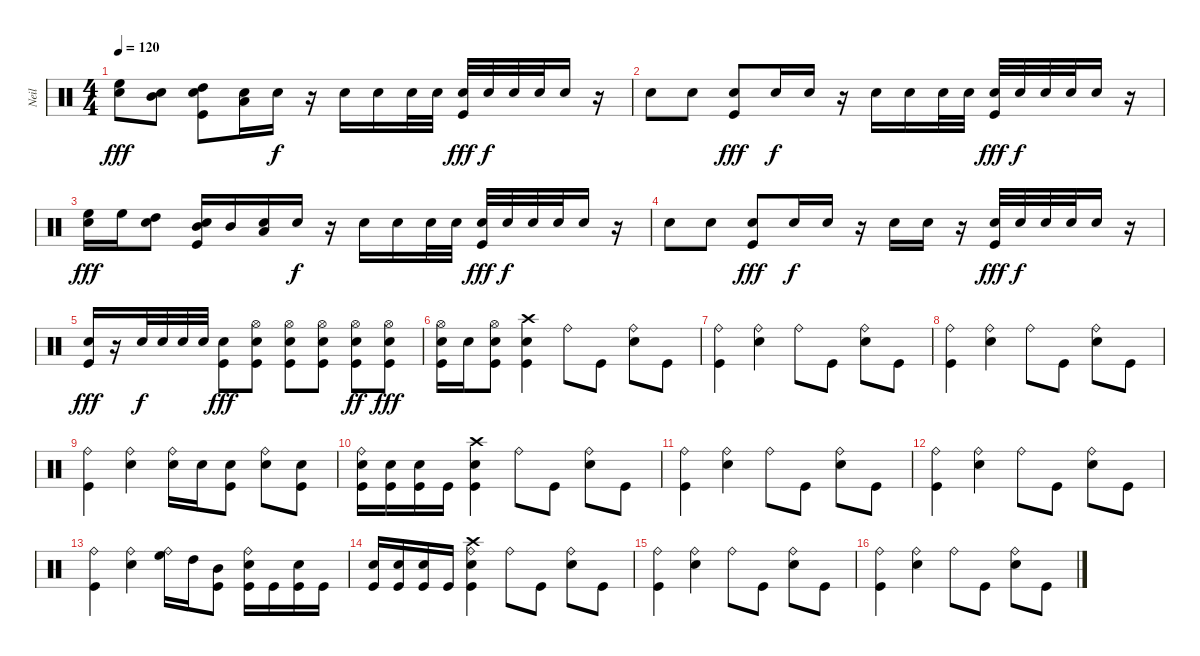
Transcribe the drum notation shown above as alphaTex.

\track ("Neil" "Neil") {instrument percussion}
\staff {score}
\articulation defaults
\ts (4 4)
\tempo 120
\clef neutral
\ks c
("High Floor Tom (hit)" "Snare (hit) 2").8{dy fff} ("Mid Tom (hit)" "Snare (hit) 2").8 ("Snare (hit) 2" "Kick (hit)" "High Tom (hit)").8 ("Snare (hit) 2" "Low Tom (hit)").16 "Snare (hit) 2".16{dy f} r.16 "Snare (hit) 2".16 "Snare (hit) 2".16 "Snare (hit) 2".32 "Snare (hit) 2".32 ("Snare (hit) 2" "Kick (hit)").32{dy fff} "Snare (hit) 2".32{dy f} "Snare (hit) 2".32 "Snare (hit) 2".32 "Snare (hit) 2".16 r.16 |
"Snare (hit) 2".8 "Snare (hit) 2".8 ("Kick (hit)" "Snare (hit) 2").8{dy fff} "Snare (hit) 2".16{dy f} "Snare (hit) 2".16 r.16 "Snare (hit) 2".16 "Snare (hit) 2".16 "Snare (hit) 2".32 "Snare (hit) 2".32 ("Kick (hit)" "Snare (hit) 2").32{dy fff} "Snare (hit) 2".32{dy f} "Snare (hit) 2".32 "Snare (hit) 2".32 "Snare (hit) 2".16 r.16 |
("High Floor Tom (hit)" "Snare (hit) 2").16{dy fff} "High Floor Tom (hit)".16 ("Snare (hit) 2" "High Tom (hit)").8 ("Kick (hit)" "Mid Tom (hit)" "Snare (hit) 2").16 "Mid Tom (hit)".16 ("Snare (hit) 2" "Low Tom (hit)").16 "Snare (hit) 2".16{dy f} r.16 "Snare (hit) 2".16 "Snare (hit) 2".16 "Snare (hit) 2".32 "Snare (hit) 2".32 ("Snare (hit) 2" "Kick (hit)").32{dy fff} "Snare (hit) 2".32{dy f} "Snare (hit) 2".32 "Snare (hit) 2".32 "Snare (hit) 2".16 r.16 |
"Snare (hit) 2".8 "Snare (hit) 2".8 ("Kick (hit)" "Snare (hit) 2").8{dy fff} "Snare (hit) 2".16{dy f} "Snare (hit) 2".16 r.16 "Snare (hit) 2".16 "Snare (hit) 2".16 r.16 ("Snare (hit) 2" "Kick (hit)").32{dy fff} "Snare (hit) 2".32{dy f} "Snare (hit) 2".32 "Snare (hit) 2".32 "Snare (hit) 2".16 r.16 |
("Kick (hit)" "Snare (hit) 2").16{dy fff} r.16 "Snare (hit) 2".32{dy f} "Snare (hit) 2".32 "Snare (hit) 2".32 "Snare (hit) 2".32 ("Kick (hit)" "Snare (hit) 2").8{dy fff} ("Snare (hit) 2" "Hi-Hat (open)" "Kick (hit)").8 ("Snare (hit) 2" "Hi-Hat (open)" "Kick (hit)").8 ("Snare (hit) 2" "Hi-Hat (open)" "Kick (hit)").8 ("Kick (hit)" "Snare (hit) 2" "Hi-Hat (open)").8{dy ff} ("Hi-Hat (open)" "Snare (hit) 2" "Kick (hit)").8{dy fff} |
("Hi-Hat (open)" "Kick (hit)" "Snare (hit) 2").16 "Snare (hit) 2".16 ("Hi-Hat (open)" "Kick (hit)" "Snare (hit) 2").8 ("Snare (hit) 2" "Crash high (hit)" "Kick (hit)").4 "Ride (bell)".8 "Kick (hit)".8 ("Ride (bell)" "Snare (hit) 2").8 "Kick (hit)".8 |
("Ride (bell)" "Kick (hit)").4 ("Snare (hit) 2" "Ride (bell)").4 "Ride (bell)".8 "Kick (hit)".8 ("Ride (bell)" "Snare (hit) 2").8 "Kick (hit)".8 |
("Ride (bell)" "Kick (hit)").4 ("Ride (bell)" "Snare (hit) 2").4 "Ride (bell)".8 "Kick (hit)".8 ("Ride (bell)" "Snare (hit) 2").8 "Kick (hit)".8 |
("Ride (bell)" "Kick (hit)").4 ("Snare (hit) 2" "Ride (bell)").4 ("Ride (bell)" "Snare (hit) 2").16 "Snare (hit) 2".16 ("Snare (hit) 2" "Kick (hit)").8 ("Snare (hit) 2" "Ride (bell)").8 ("Kick (hit)" "Snare (hit) 2").8 |
("Ride (bell)" "Kick (hit)" "Snare (hit) 2").16 ("Kick (hit)" "Snare (hit) 2").16 ("Kick (hit)" "Snare (hit) 2").16 "Kick (hit)".16 ("Crash high (hit)" "Kick (hit)" "Snare (hit) 2").4 "Ride (bell)".8 "Kick (hit)".8 ("Ride (bell)" "Snare (hit) 2").8 "Kick (hit)".8 |
("Kick (hit)" "Ride (bell)").4 ("Ride (bell)" "Snare (hit) 2").4 "Ride (bell)".8 "Kick (hit)".8 ("Ride (bell)" "Snare (hit) 2").8 "Kick (hit)".8 |
("Kick (hit)" "Ride (bell)").4 ("Ride (bell)" "Snare (hit) 2").4 "Ride (bell)".8 "Kick (hit)".8 ("Ride (bell)" "Snare (hit) 2").8 "Kick (hit)".8 |
("Kick (hit)" "Ride (bell)").4 ("Ride (bell)" "Snare (hit) 2").4 ("High Floor Tom (hit)" "Ride (bell)").16 "High Tom (hit)".16 ("Mid Tom (hit)" "Kick (hit)").8 ("Kick (hit)" "Ride (bell)" "Snare (hit) 2").16 "Kick (hit)".16 ("Kick (hit)" "Snare (hit) 2").16 "Kick (hit)".16 |
("Kick (hit)" "Snare (hit) 2").16 ("Kick (hit)" "Snare (hit) 2").16 ("Kick (hit)" "Snare (hit) 2").16 "Kick (hit)".16 ("Snare (hit) 2" "Ride (bell)" "Kick (hit)" "Crash high (hit)").4 "Ride (bell)".8 "Kick (hit)".8 ("Snare (hit) 2" "Ride (bell)").8 "Kick (hit)".8 |
("Kick (hit)" "Ride (bell)").4 ("Snare (hit) 2" "Ride (bell)").4 "Ride (bell)".8 "Kick (hit)".8 ("Snare (hit) 2" "Ride (bell)").8 "Kick (hit)".8 |
("Kick (hit)" "Ride (bell)").4 ("Ride (bell)" "Snare (hit) 2").4 "Ride (bell)".8 "Kick (hit)".8 ("Ride (bell)" "Snare (hit) 2").8 "Kick (hit)".8
